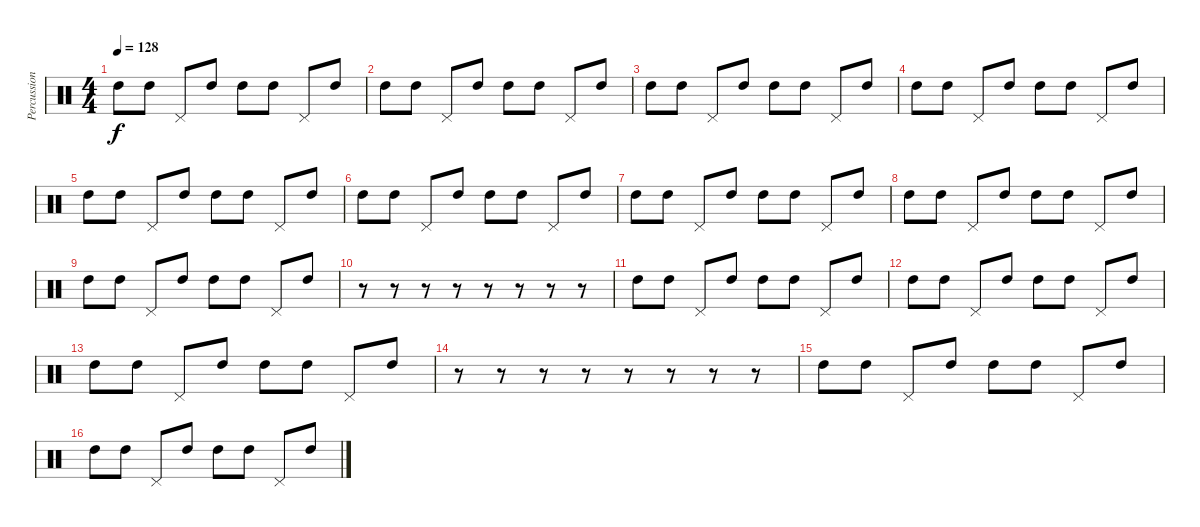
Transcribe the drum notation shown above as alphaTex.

\track ("Percussion" "Percussion") {instrument percussion}
\staff {score}
\articulation defaults
\ts (4 4)
\tempo 128
\clef neutral
\ks c "High Tom (hit)".8{dy f} "High Tom (hit)".8 "Pedal Hi-Hat (hit)".8 "High Tom (hit)".8 "High Tom (hit)".8 "High Tom (hit)".8 "Pedal Hi-Hat (hit)".8 "High Tom (hit)".8
|
"High Tom (hit)".8 "High Tom (hit)".8 "Pedal Hi-Hat (hit)".8 "High Tom (hit)".8 "High Tom (hit)".8 "High Tom (hit)".8 "Pedal Hi-Hat (hit)".8 "High Tom (hit)".8 |
"High Tom (hit)".8 "High Tom (hit)".8 "Pedal Hi-Hat (hit)".8 "High Tom (hit)".8 "High Tom (hit)".8 "High Tom (hit)".8 "Pedal Hi-Hat (hit)".8 "High Tom (hit)".8 |
"High Tom (hit)".8 "High Tom (hit)".8 "Pedal Hi-Hat (hit)".8 "High Tom (hit)".8 "High Tom (hit)".8 "High Tom (hit)".8 "Pedal Hi-Hat (hit)".8 "High Tom (hit)".8 |
"High Tom (hit)".8 "High Tom (hit)".8 "Pedal Hi-Hat (hit)".8 "High Tom (hit)".8 "High Tom (hit)".8 "High Tom (hit)".8 "Pedal Hi-Hat (hit)".8 "High Tom (hit)".8 |
"High Tom (hit)".8 "High Tom (hit)".8 "Pedal Hi-Hat (hit)".8 "High Tom (hit)".8 "High Tom (hit)".8 "High Tom (hit)".8 "Pedal Hi-Hat (hit)".8 "High Tom (hit)".8 |
"High Tom (hit)".8 "High Tom (hit)".8 "Pedal Hi-Hat (hit)".8 "High Tom (hit)".8 "High Tom (hit)".8 "High Tom (hit)".8 "Pedal Hi-Hat (hit)".8 "High Tom (hit)".8 |
"High Tom (hit)".8 "High Tom (hit)".8 "Pedal Hi-Hat (hit)".8 "High Tom (hit)".8 "High Tom (hit)".8 "High Tom (hit)".8 "Pedal Hi-Hat (hit)".8 "High Tom (hit)".8 |
"High Tom (hit)".8 "High Tom (hit)".8 "Pedal Hi-Hat (hit)".8 "High Tom (hit)".8 "High Tom (hit)".8 "High Tom (hit)".8 "Pedal Hi-Hat (hit)".8 "High Tom (hit)".8 |
r.8 r.8 r.8 r.8 r.8 r.8 r.8 r.8 |
"High Tom (hit)".8 "High Tom (hit)".8 "Pedal Hi-Hat (hit)".8 "High Tom (hit)".8 "High Tom (hit)".8 "High Tom (hit)".8 "Pedal Hi-Hat (hit)".8 "High Tom (hit)".8 |
"High Tom (hit)".8 "High Tom (hit)".8 "Pedal Hi-Hat (hit)".8 "High Tom (hit)".8 "High Tom (hit)".8 "High Tom (hit)".8 "Pedal Hi-Hat (hit)".8 "High Tom (hit)".8 |
"High Tom (hit)".8 "High Tom (hit)".8 "Pedal Hi-Hat (hit)".8 "High Tom (hit)".8 "High Tom (hit)".8 "High Tom (hit)".8 "Pedal Hi-Hat (hit)".8 "High Tom (hit)".8 |
r.8 r.8 r.8 r.8 r.8 r.8 r.8 r.8 |
"High Tom (hit)".8 "High Tom (hit)".8 "Pedal Hi-Hat (hit)".8 "High Tom (hit)".8 "High Tom (hit)".8 "High Tom (hit)".8 "Pedal Hi-Hat (hit)".8 "High Tom (hit)".8 |
"High Tom (hit)".8 "High Tom (hit)".8 "Pedal Hi-Hat (hit)".8 "High Tom (hit)".8 "High Tom (hit)".8 "High Tom (hit)".8 "Pedal Hi-Hat (hit)".8 "High Tom (hit)".8
